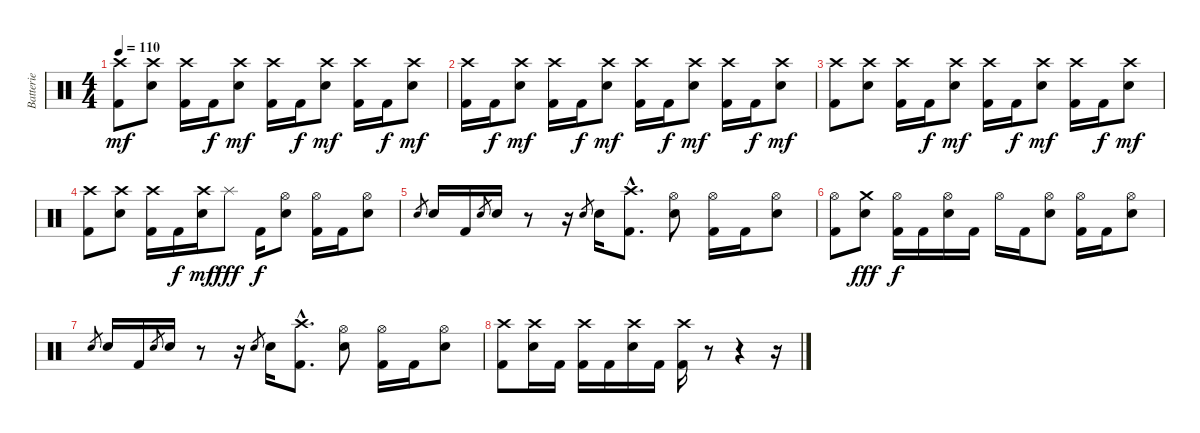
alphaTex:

\track ("Batterie" "Batterie") {instrument percussion}
\staff {score}
\articulation defaults
\ts (4 4)
\tempo 110
\clef neutral
\ks c
("Crash high (hit)" "Kick (hit) 2").8{dy mf} ("Crash high (hit)" "Snare (hit) 2").8 ("Crash high (hit)" "Kick (hit) 2").16 "Kick (hit) 2".16{dy f} ("Crash high (hit)" "Snare (hit) 2").8{dy mf} ("Crash high (hit)" "Kick (hit) 2").16 "Kick (hit) 2".16{dy f} ("Crash high (hit)" "Snare (hit) 2").8{dy mf} ("Crash high (hit)" "Kick (hit) 2").16 "Kick (hit) 2".16{dy f} ("Crash high (hit)" "Snare (hit) 2").8{dy mf} |
("Crash high (hit)" "Kick (hit) 2").16 "Kick (hit) 2".16{dy f} ("Crash high (hit)" "Snare (hit) 2").8{dy mf} ("Crash high (hit)" "Kick (hit) 2").16 "Kick (hit) 2".16{dy f} ("Crash high (hit)" "Snare (hit) 2").8{dy mf} ("Crash high (hit)" "Kick (hit) 2").16 "Kick (hit) 2".16{dy f} ("Crash high (hit)" "Snare (hit) 2").8{dy mf} ("Crash high (hit)" "Kick (hit) 2").16 "Kick (hit) 2".16{dy f} ("Crash high (hit)" "Snare (hit) 2").8{dy mf} |
("Crash high (hit)" "Kick (hit) 2").8 ("Crash high (hit)" "Snare (hit) 2").8 ("Crash high (hit)" "Kick (hit) 2").16 "Kick (hit) 2".16{dy f} ("Crash high (hit)" "Snare (hit) 2").8{dy mf} ("Crash high (hit)" "Kick (hit) 2").16 "Kick (hit) 2".16{dy f} ("Crash high (hit)" "Snare (hit) 2").8{dy mf} ("Crash high (hit)" "Kick (hit) 2").16 "Kick (hit) 2".16{dy f} ("Crash high (hit)" "Snare (hit) 2").8{dy mf} |
("Crash high (hit)" "Kick (hit) 2").8 ("Crash high (hit)" "Snare (hit) 2").8 ("Crash high (hit)" "Kick (hit) 2").16 "Kick (hit) 2".16{dy f} ("Crash high (hit)" "Snare (hit) 2").16{dy mf} "Splash (hit)".8{dy fff} "Kick (hit) 2".16{dy f} ("Hi-Hat (open)" "Snare (hit) 2").8 ("Hi-Hat (open)" "Kick (hit) 2").16 "Kick (hit) 2".16 ("Hi-Hat (open)" "Snare (hit) 2").8 |
"Snare (hit) 2".8{gr} "Snare (hit) 2".16 "Kick (hit) 2".16 "Snare (hit) 2".8{gr} "Snare (hit) 2".16 r.8 r.16 "Snare (hit) 2".8{gr} "Snare (hit) 2".16 ("Crash high (hit)"{hac} "Kick (hit) 2"{hac}).8{d} ("Hi-Hat (open)" "Snare (hit) 2").8 ("Hi-Hat (open)" "Kick (hit) 2").16 "Kick (hit) 2".16 ("Hi-Hat (open)" "Snare (hit) 2").8 |
("Hi-Hat (open)" "Kick (hit) 2").8 ("Crash medium (hit)" "Snare (hit) 2").8{dy fff} ("Hi-Hat (open)" "Kick (hit) 2").16{dy f} "Kick (hit) 2".16 ("Hi-Hat (open)" "Snare (hit) 2").16 "Kick (hit) 2".16 "Hi-Hat (open)".16 "Kick (hit) 2".16 ("Hi-Hat (open)" "Snare (hit) 2").8 ("Hi-Hat (open)" "Kick (hit) 2").16 "Kick (hit) 2".16 ("Hi-Hat (open)" "Snare (hit) 2").8 |
"Snare (hit) 2".8{gr} "Snare (hit) 2".16 "Kick (hit) 2".16 "Snare (hit) 2".8{gr} "Snare (hit) 2".16 r.8 r.16 "Snare (hit) 2".8{gr} "Snare (hit) 2".16 ("Crash high (hit)"{hac} "Kick (hit) 2"{hac}).8{d} ("Hi-Hat (open)" "Snare (hit) 2").8 ("Hi-Hat (open)" "Kick (hit) 2").16 "Kick (hit) 2".16 ("Hi-Hat (open)" "Snare (hit) 2").8 |
("Crash high (hit)" "Kick (hit) 2").8 ("Crash high (hit)" "Snare (hit) 2").16 "Kick (hit) 2".16 ("Crash high (hit)" "Kick (hit) 2").16 "Kick (hit) 2".16 ("Crash high (hit)" "Snare (hit) 2").16 "Kick (hit) 2".16 ("Crash high (hit)" "Kick (hit) 2").16 r.8 r.4 r.16
